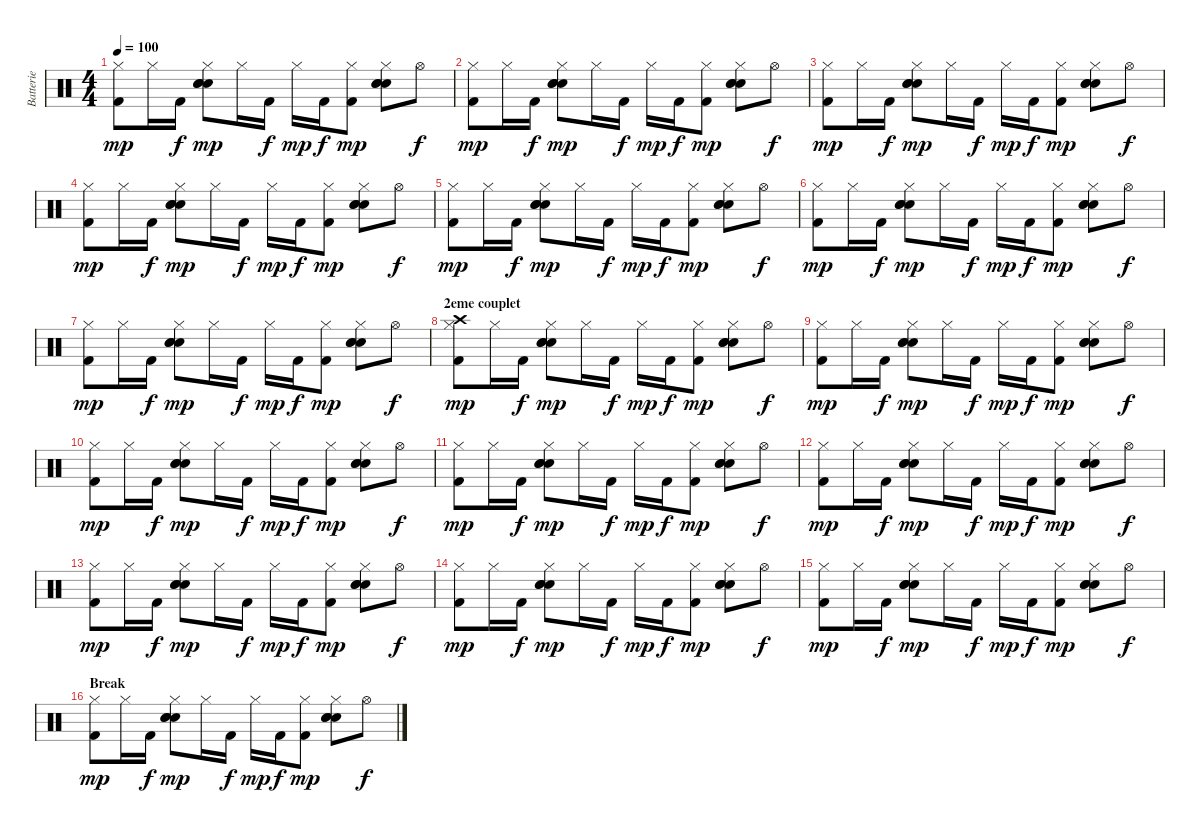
\track ("Batterie" "Batterie") {instrument percussion}
\staff {score}
\articulation defaults
\ts (4 4)
\tempo 100
\clef neutral
\ks c
("Kick (hit) 2" "Hi-Hat (closed)").8{dy mp} "Hi-Hat (closed)".16 "Kick (hit) 2".16{dy f} ("Snare (hit) 2" "Snare (hit) 2" "Electric Snare (hit)" "Hi-Hat (closed)").8{dy mp} "Hi-Hat (closed)".16 "Kick (hit) 2".16{dy f} "Hi-Hat (closed)".16{dy mp} "Kick (hit) 2".16{dy f} ("Kick (hit) 2" "Hi-Hat (closed)").8{dy mp} ("Snare (hit) 2" "Snare (hit) 2" "Electric Snare (hit)" "Hi-Hat (closed)").8 "Hi-Hat (open)".8{dy f} |
("Kick (hit) 2" "Hi-Hat (closed)").8{dy mp} "Hi-Hat (closed)".16 "Kick (hit) 2".16{dy f} ("Snare (hit) 2" "Snare (hit) 2" "Electric Snare (hit)" "Hi-Hat (closed)").8{dy mp} "Hi-Hat (closed)".16 "Kick (hit) 2".16{dy f} "Hi-Hat (closed)".16{dy mp} "Kick (hit) 2".16{dy f} ("Kick (hit) 2" "Hi-Hat (closed)").8{dy mp} ("Snare (hit) 2" "Snare (hit) 2" "Electric Snare (hit)" "Hi-Hat (closed)").8 "Hi-Hat (open)".8{dy f} |
("Kick (hit) 2" "Hi-Hat (closed)").8{dy mp} "Hi-Hat (closed)".16 "Kick (hit) 2".16{dy f} ("Snare (hit) 2" "Snare (hit) 2" "Electric Snare (hit)" "Hi-Hat (closed)").8{dy mp} "Hi-Hat (closed)".16 "Kick (hit) 2".16{dy f} "Hi-Hat (closed)".16{dy mp} "Kick (hit) 2".16{dy f} ("Kick (hit) 2" "Hi-Hat (closed)").8{dy mp} ("Snare (hit) 2" "Snare (hit) 2" "Electric Snare (hit)" "Hi-Hat (closed)").8 "Hi-Hat (open)".8{dy f} |
("Kick (hit) 2" "Hi-Hat (closed)").8{dy mp} "Hi-Hat (closed)".16 "Kick (hit) 2".16{dy f} ("Snare (hit) 2" "Snare (hit) 2" "Electric Snare (hit)" "Hi-Hat (closed)").8{dy mp} "Hi-Hat (closed)".16 "Kick (hit) 2".16{dy f} "Hi-Hat (closed)".16{dy mp} "Kick (hit) 2".16{dy f} ("Kick (hit) 2" "Hi-Hat (closed)").8{dy mp} ("Snare (hit) 2" "Snare (hit) 2" "Electric Snare (hit)" "Hi-Hat (closed)").8 "Hi-Hat (open)".8{dy f} |
("Kick (hit) 2" "Hi-Hat (closed)").8{dy mp} "Hi-Hat (closed)".16 "Kick (hit) 2".16{dy f} ("Snare (hit) 2" "Snare (hit) 2" "Electric Snare (hit)" "Hi-Hat (closed)").8{dy mp} "Hi-Hat (closed)".16 "Kick (hit) 2".16{dy f} "Hi-Hat (closed)".16{dy mp} "Kick (hit) 2".16{dy f} ("Kick (hit) 2" "Hi-Hat (closed)").8{dy mp} ("Snare (hit) 2" "Snare (hit) 2" "Electric Snare (hit)" "Hi-Hat (closed)").8 "Hi-Hat (open)".8{dy f} |
("Kick (hit) 2" "Hi-Hat (closed)").8{dy mp} "Hi-Hat (closed)".16 "Kick (hit) 2".16{dy f} ("Snare (hit) 2" "Snare (hit) 2" "Electric Snare (hit)" "Hi-Hat (closed)").8{dy mp} "Hi-Hat (closed)".16 "Kick (hit) 2".16{dy f} "Hi-Hat (closed)".16{dy mp} "Kick (hit) 2".16{dy f} ("Kick (hit) 2" "Hi-Hat (closed)").8{dy mp} ("Snare (hit) 2" "Snare (hit) 2" "Electric Snare (hit)" "Hi-Hat (closed)").8 "Hi-Hat (open)".8{dy f} |
("Kick (hit) 2" "Hi-Hat (closed)").8{dy mp} "Hi-Hat (closed)".16 "Kick (hit) 2".16{dy f} ("Snare (hit) 2" "Snare (hit) 2" "Electric Snare (hit)" "Hi-Hat (closed)").8{dy mp} "Hi-Hat (closed)".16 "Kick (hit) 2".16{dy f} "Hi-Hat (closed)".16{dy mp} "Kick (hit) 2".16{dy f} ("Kick (hit) 2" "Hi-Hat (closed)").8{dy mp} ("Snare (hit) 2" "Snare (hit) 2" "Electric Snare (hit)" "Hi-Hat (closed)").8 "Hi-Hat (open)".8{dy f} |
\section ("" "2eme couplet")
("Crash high (hit)" "Kick (hit) 2" "Hi-Hat (closed)").8{dy mp} "Hi-Hat (closed)".16 "Kick (hit) 2".16{dy f} ("Snare (hit) 2" "Snare (hit) 2" "Electric Snare (hit)" "Hi-Hat (closed)").8{dy mp} "Hi-Hat (closed)".16 "Kick (hit) 2".16{dy f} "Hi-Hat (closed)".16{dy mp} "Kick (hit) 2".16{dy f} ("Kick (hit) 2" "Hi-Hat (closed)").8{dy mp} ("Snare (hit) 2" "Snare (hit) 2" "Electric Snare (hit)" "Hi-Hat (closed)").8 "Hi-Hat (open)".8{dy f} |
("Kick (hit) 2" "Hi-Hat (closed)").8{dy mp} "Hi-Hat (closed)".16 "Kick (hit) 2".16{dy f} ("Snare (hit) 2" "Snare (hit) 2" "Electric Snare (hit)" "Hi-Hat (closed)").8{dy mp} "Hi-Hat (closed)".16 "Kick (hit) 2".16{dy f} "Hi-Hat (closed)".16{dy mp} "Kick (hit) 2".16{dy f} ("Kick (hit) 2" "Hi-Hat (closed)").8{dy mp} ("Snare (hit) 2" "Snare (hit) 2" "Electric Snare (hit)" "Hi-Hat (closed)").8 "Hi-Hat (open)".8{dy f} |
("Kick (hit) 2" "Hi-Hat (closed)").8{dy mp} "Hi-Hat (closed)".16 "Kick (hit) 2".16{dy f} ("Snare (hit) 2" "Snare (hit) 2" "Electric Snare (hit)" "Hi-Hat (closed)").8{dy mp} "Hi-Hat (closed)".16 "Kick (hit) 2".16{dy f} "Hi-Hat (closed)".16{dy mp} "Kick (hit) 2".16{dy f} ("Kick (hit) 2" "Hi-Hat (closed)").8{dy mp} ("Snare (hit) 2" "Snare (hit) 2" "Electric Snare (hit)" "Hi-Hat (closed)").8 "Hi-Hat (open)".8{dy f} |
("Kick (hit) 2" "Hi-Hat (closed)").8{dy mp} "Hi-Hat (closed)".16 "Kick (hit) 2".16{dy f} ("Snare (hit) 2" "Snare (hit) 2" "Electric Snare (hit)" "Hi-Hat (closed)").8{dy mp} "Hi-Hat (closed)".16 "Kick (hit) 2".16{dy f} "Hi-Hat (closed)".16{dy mp} "Kick (hit) 2".16{dy f} ("Kick (hit) 2" "Hi-Hat (closed)").8{dy mp} ("Snare (hit) 2" "Snare (hit) 2" "Electric Snare (hit)" "Hi-Hat (closed)").8 "Hi-Hat (open)".8{dy f} |
("Kick (hit) 2" "Hi-Hat (closed)").8{dy mp} "Hi-Hat (closed)".16 "Kick (hit) 2".16{dy f} ("Snare (hit) 2" "Snare (hit) 2" "Electric Snare (hit)" "Hi-Hat (closed)").8{dy mp} "Hi-Hat (closed)".16 "Kick (hit) 2".16{dy f} "Hi-Hat (closed)".16{dy mp} "Kick (hit) 2".16{dy f} ("Kick (hit) 2" "Hi-Hat (closed)").8{dy mp} ("Snare (hit) 2" "Snare (hit) 2" "Electric Snare (hit)" "Hi-Hat (closed)").8 "Hi-Hat (open)".8{dy f} |
("Kick (hit) 2" "Hi-Hat (closed)").8{dy mp} "Hi-Hat (closed)".16 "Kick (hit) 2".16{dy f} ("Snare (hit) 2" "Snare (hit) 2" "Electric Snare (hit)" "Hi-Hat (closed)").8{dy mp} "Hi-Hat (closed)".16 "Kick (hit) 2".16{dy f} "Hi-Hat (closed)".16{dy mp} "Kick (hit) 2".16{dy f} ("Kick (hit) 2" "Hi-Hat (closed)").8{dy mp} ("Snare (hit) 2" "Snare (hit) 2" "Electric Snare (hit)" "Hi-Hat (closed)").8 "Hi-Hat (open)".8{dy f} |
("Kick (hit) 2" "Hi-Hat (closed)").8{dy mp} "Hi-Hat (closed)".16 "Kick (hit) 2".16{dy f} ("Snare (hit) 2" "Snare (hit) 2" "Electric Snare (hit)" "Hi-Hat (closed)").8{dy mp} "Hi-Hat (closed)".16 "Kick (hit) 2".16{dy f} "Hi-Hat (closed)".16{dy mp} "Kick (hit) 2".16{dy f} ("Kick (hit) 2" "Hi-Hat (closed)").8{dy mp} ("Snare (hit) 2" "Snare (hit) 2" "Electric Snare (hit)" "Hi-Hat (closed)").8 "Hi-Hat (open)".8{dy f} |
("Kick (hit) 2" "Hi-Hat (closed)").8{dy mp} "Hi-Hat (closed)".16 "Kick (hit) 2".16{dy f} ("Snare (hit) 2" "Snare (hit) 2" "Electric Snare (hit)" "Hi-Hat (closed)").8{dy mp} "Hi-Hat (closed)".16 "Kick (hit) 2".16{dy f} "Hi-Hat (closed)".16{dy mp} "Kick (hit) 2".16{dy f} ("Kick (hit) 2" "Hi-Hat (closed)").8{dy mp} ("Snare (hit) 2" "Snare (hit) 2" "Electric Snare (hit)" "Hi-Hat (closed)").8 "Hi-Hat (open)".8{dy f} |
\section ("" "Break ")
("Kick (hit) 2" "Hi-Hat (closed)").8{dy mp} "Hi-Hat (closed)".16 "Kick (hit) 2".16{dy f} ("Snare (hit) 2" "Snare (hit) 2" "Electric Snare (hit)" "Hi-Hat (closed)").8{dy mp} "Hi-Hat (closed)".16 "Kick (hit) 2".16{dy f} "Hi-Hat (closed)".16{dy mp} "Kick (hit) 2".16{dy f} ("Kick (hit) 2" "Hi-Hat (closed)").8{dy mp} ("Snare (hit) 2" "Snare (hit) 2" "Electric Snare (hit)" "Hi-Hat (closed)").8 "Hi-Hat (open)".8{dy f}
